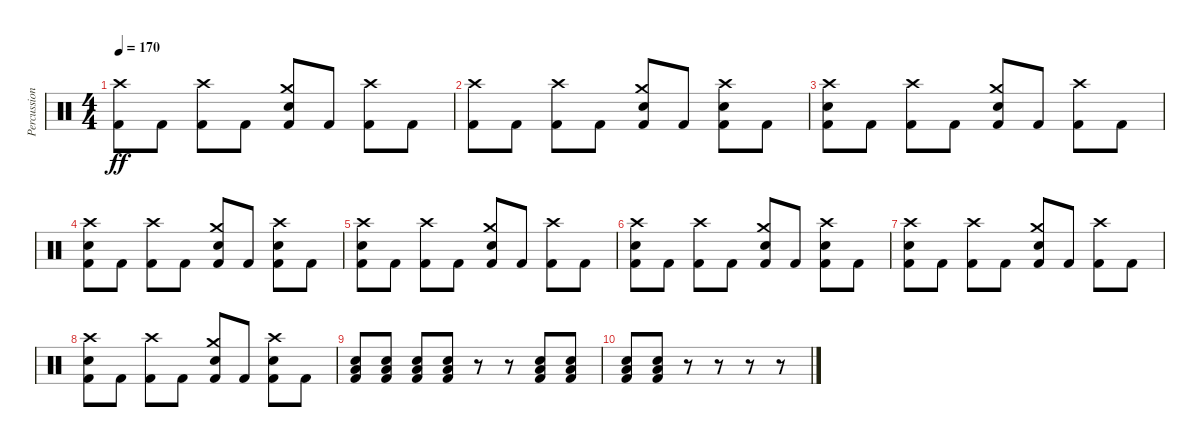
\track ("Percussion" "Percussion") {instrument percussion}
\staff {score}
\articulation defaults
\ts (4 4)
\tempo 170
\clef neutral
\ks c
("Crash high (hit)" "Kick (hit) 2").8{dy ff} "Kick (hit) 2".8 ("Crash high (hit)" "Kick (hit) 2").8 "Kick (hit) 2".8 ("Crash medium (hit)" "Electric Snare (hit)" "Kick (hit) 2").8 "Kick (hit) 2".8 ("Crash high (hit)" "Kick (hit) 2").8 "Kick (hit) 2".8 |
("Crash high (hit)" "Kick (hit) 2").8 "Kick (hit) 2".8 ("Crash high (hit)" "Kick (hit) 2").8 "Kick (hit) 2".8 ("Crash medium (hit)" "Electric Snare (hit)" "Kick (hit) 2").8 "Kick (hit) 2".8 ("Crash high (hit)" "Electric Snare (hit)" "Kick (hit) 2").8 "Kick (hit) 2".8 |
("Crash high (hit)" "Electric Snare (hit)" "Kick (hit) 2").8 "Kick (hit) 2".8 ("Crash high (hit)" "Kick (hit) 2").8 "Kick (hit) 2".8 ("Crash medium (hit)" "Electric Snare (hit)" "Kick (hit) 2").8 "Kick (hit) 2".8 ("Crash high (hit)" "Kick (hit) 2").8 "Kick (hit) 2".8 |
("Crash high (hit)" "Electric Snare (hit)" "Kick (hit) 2").8 "Kick (hit) 2".8 ("Crash high (hit)" "Kick (hit) 2").8 "Kick (hit) 2".8 ("Crash medium (hit)" "Electric Snare (hit)" "Kick (hit) 2").8 "Kick (hit) 2".8 ("Crash high (hit)" "Electric Snare (hit)" "Kick (hit) 2").8 "Kick (hit) 2".8 |
("Crash high (hit)" "Electric Snare (hit)" "Kick (hit) 2").8 "Kick (hit) 2".8 ("Crash high (hit)" "Kick (hit) 2").8 "Kick (hit) 2".8 ("Crash medium (hit)" "Electric Snare (hit)" "Kick (hit) 2").8 "Kick (hit) 2".8 ("Crash high (hit)" "Kick (hit) 2").8 "Kick (hit) 2".8 |
("Crash high (hit)" "Electric Snare (hit)" "Kick (hit) 2").8 "Kick (hit) 2".8 ("Crash high (hit)" "Kick (hit) 2").8 "Kick (hit) 2".8 ("Crash medium (hit)" "Electric Snare (hit)" "Kick (hit) 2").8 "Kick (hit) 2".8 ("Crash high (hit)" "Electric Snare (hit)" "Kick (hit) 2").8 "Kick (hit) 2".8 |
("Crash high (hit)" "Electric Snare (hit)" "Kick (hit) 2").8 "Kick (hit) 2".8 ("Crash high (hit)" "Kick (hit) 2").8 "Kick (hit) 2".8 ("Crash medium (hit)" "Electric Snare (hit)" "Kick (hit) 2").8 "Kick (hit) 2".8 ("Crash high (hit)" "Kick (hit) 2").8 "Kick (hit) 2".8 |
("Crash high (hit)" "Electric Snare (hit)" "Kick (hit) 2").8 "Kick (hit) 2".8 ("Crash high (hit)" "Kick (hit) 2").8 "Kick (hit) 2".8 ("Crash medium (hit)" "Electric Snare (hit)" "Kick (hit) 2").8 "Kick (hit) 2".8 ("Crash high (hit)" "Electric Snare (hit)" "Kick (hit) 2").8 "Kick (hit) 2".8 |
("Low Floor Tom (hit)" "Electric Snare (hit)" "Kick (hit) 2").8 ("Low Floor Tom (hit)" "Electric Snare (hit)" "Kick (hit) 2").8 ("Low Floor Tom (hit)" "Electric Snare (hit)" "Kick (hit) 2").8 ("Low Floor Tom (hit)" "Electric Snare (hit)" "Kick (hit) 2").8 r.8 r.8 ("Low Floor Tom (hit)" "Electric Snare (hit)" "Kick (hit) 2").8 ("Low Floor Tom (hit)" "Electric Snare (hit)" "Kick (hit) 2").8 |
("Low Floor Tom (hit)" "Electric Snare (hit)" "Kick (hit) 2").8 ("Low Floor Tom (hit)" "Electric Snare (hit)" "Kick (hit) 2").8 r.8 r.8 r.8 r.8
